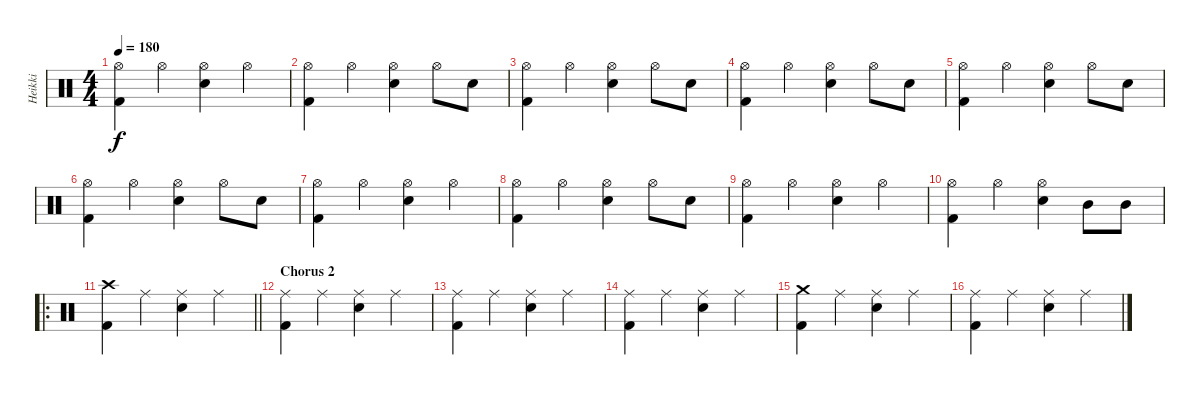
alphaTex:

\track ("Heikki" "Heikki") {instrument percussion}
\staff {score}
\articulation defaults
\ts (4 4)
\tempo 180
\clef neutral
\ks c
("Hi-Hat (open)" "Kick (hit) 2").4{dy f} "Hi-Hat (open)".4 ("Hi-Hat (open)" "Electric Snare (hit)").4 "Hi-Hat (open)".4 |
("Hi-Hat (open)" "Kick (hit) 2").4 "Hi-Hat (open)".4 ("Hi-Hat (open)" "Electric Snare (hit)").4 "Hi-Hat (open)".8 "Electric Snare (hit)".8 |
("Hi-Hat (open)" "Kick (hit) 2").4 "Hi-Hat (open)".4 ("Hi-Hat (open)" "Electric Snare (hit)").4 "Hi-Hat (open)".8 "Electric Snare (hit)".8 |
("Hi-Hat (open)" "Kick (hit) 2").4 "Hi-Hat (open)".4 ("Hi-Hat (open)" "Electric Snare (hit)").4 "Hi-Hat (open)".8 "Electric Snare (hit)".8 |
("Hi-Hat (open)" "Kick (hit) 2").4 "Hi-Hat (open)".4 ("Hi-Hat (open)" "Electric Snare (hit)").4 "Hi-Hat (open)".8 "Electric Snare (hit)".8 |
("Hi-Hat (open)" "Kick (hit) 2").4 "Hi-Hat (open)".4 ("Hi-Hat (open)" "Electric Snare (hit)").4 "Hi-Hat (open)".8 "Electric Snare (hit)".8 |
("Hi-Hat (open)" "Kick (hit) 2").4 "Hi-Hat (open)".4 ("Hi-Hat (open)" "Electric Snare (hit)").4 "Hi-Hat (open)".4 |
("Hi-Hat (open)" "Kick (hit) 2").4 "Hi-Hat (open)".4 ("Hi-Hat (open)" "Electric Snare (hit)").4 "Hi-Hat (open)".8 "Electric Snare (hit)".8 |
("Hi-Hat (open)" "Kick (hit) 2").4 "Hi-Hat (open)".4 ("Hi-Hat (open)" "Electric Snare (hit)").4 "Hi-Hat (open)".4 |
("Hi-Hat (open)" "Kick (hit) 2").4 "Hi-Hat (open)".4 ("Hi-Hat (open)" "Electric Snare (hit)").4 "Mid Tom (hit)".8 "Mid Tom (hit)".8 |
\ro
\barLineRight lightlight
("Crash high (hit)" "Kick (hit) 2").4 "Ride (middle)".4 ("Ride (middle)" "Electric Snare (hit)").4 "Ride (middle)".4 |
\section ("" "Chorus 2")
("Ride (middle)" "Kick (hit) 2").4 "Ride (middle)".4 ("Ride (middle)" "Electric Snare (hit)").4 "Ride (middle)".4 |
("Ride (middle)" "Kick (hit) 2").4 "Ride (middle)".4 ("Ride (middle)" "Electric Snare (hit)").4 "Ride (middle)".4 |
("Ride (middle)" "Kick (hit) 2").4 "Ride (middle)".4 ("Ride (middle)" "Electric Snare (hit)").4 "Ride (middle)".4 |
("Crash medium (hit)" "Kick (hit) 2").4 "Ride (middle)".4 ("Ride (middle)" "Electric Snare (hit)").4 "Ride (middle)".4 |
("Ride (middle)" "Kick (hit) 2").4 "Ride (middle)".4 ("Ride (middle)" "Electric Snare (hit)").4 "Ride (middle)".4
